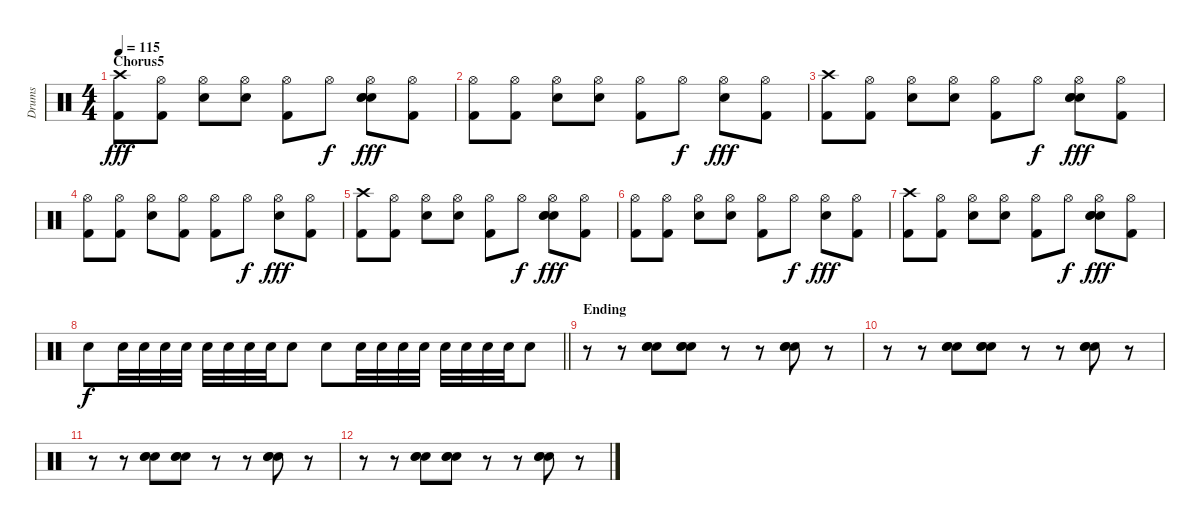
\track ("Drums" "Drums") {instrument percussion}
\staff {score}
\articulation defaults
\ts (4 4)
\section ("" "Chorus5")
\tempo 115
\clef neutral
\ks c
("Crash high (hit)" "Kick (hit) 2").8{dy fff} ("Hi-Hat (open)" "Kick (hit) 2").8 ("Hi-Hat (open)" "Electric Snare (hit)").8 ("Hi-Hat (open)" "Electric Snare (hit)").8 ("Hi-Hat (open)" "Kick (hit) 2").8 "Hi-Hat (open)".8{dy f} ("Hi-Hat (open)" "Electric Snare (hit)" "Hand Clap (hit)" "Hand Clap (hit)").8{dy fff} ("Hi-Hat (open)" "Kick (hit) 2").8 |
("Hi-Hat (open)" "Kick (hit) 2").8 ("Hi-Hat (open)" "Kick (hit) 2").8 ("Hi-Hat (open)" "Electric Snare (hit)").8 ("Hi-Hat (open)" "Electric Snare (hit)").8 ("Hi-Hat (open)" "Kick (hit) 2").8 "Hi-Hat (open)".8{dy f} ("Hi-Hat (open)" "Electric Snare (hit)").8{dy fff} ("Hi-Hat (open)" "Kick (hit) 2").8 |
("Crash high (hit)" "Kick (hit) 2").8 ("Hi-Hat (open)" "Kick (hit) 2").8 ("Hi-Hat (open)" "Electric Snare (hit)").8 ("Hi-Hat (open)" "Electric Snare (hit)").8 ("Hi-Hat (open)" "Kick (hit) 2").8 "Hi-Hat (open)".8{dy f} ("Hi-Hat (open)" "Electric Snare (hit)" "Hand Clap (hit)" "Hand Clap (hit)").8{dy fff} ("Hi-Hat (open)" "Kick (hit) 2").8 |
("Hi-Hat (open)" "Kick (hit) 2").8 ("Hi-Hat (open)" "Kick (hit) 2").8 ("Hi-Hat (open)" "Electric Snare (hit)").8 ("Hi-Hat (open)" "Kick (hit) 2").8 ("Hi-Hat (open)" "Kick (hit) 2").8 "Hi-Hat (open)".8{dy f} ("Hi-Hat (open)" "Electric Snare (hit)").8{dy fff} ("Hi-Hat (open)" "Kick (hit) 2").8 |
("Crash high (hit)" "Kick (hit) 2").8 ("Hi-Hat (open)" "Kick (hit) 2").8 ("Hi-Hat (open)" "Electric Snare (hit)").8 ("Hi-Hat (open)" "Electric Snare (hit)").8 ("Hi-Hat (open)" "Kick (hit) 2").8 "Hi-Hat (open)".8{dy f} ("Hi-Hat (open)" "Electric Snare (hit)" "Hand Clap (hit)" "Hand Clap (hit)").8{dy fff} ("Hi-Hat (open)" "Kick (hit) 2").8 |
("Hi-Hat (open)" "Kick (hit) 2").8 ("Hi-Hat (open)" "Kick (hit) 2").8 ("Hi-Hat (open)" "Electric Snare (hit)").8 ("Hi-Hat (open)" "Electric Snare (hit)").8 ("Hi-Hat (open)" "Kick (hit) 2").8 "Hi-Hat (open)".8{dy f} ("Hi-Hat (open)" "Electric Snare (hit)").8{dy fff} ("Hi-Hat (open)" "Kick (hit) 2").8 |
("Crash high (hit)" "Kick (hit) 2").8 ("Hi-Hat (open)" "Kick (hit) 2").8 ("Hi-Hat (open)" "Electric Snare (hit)").8 ("Hi-Hat (open)" "Electric Snare (hit)").8 ("Hi-Hat (open)" "Kick (hit) 2").8 "Hi-Hat (open)".8{dy f} ("Hi-Hat (open)" "Electric Snare (hit)" "Hand Clap (hit)" "Hand Clap (hit)").8{dy fff} ("Hi-Hat (open)" "Kick (hit) 2").8 |
\barLineRight lightlight "Electric Snare (hit)".8{dy f} "Electric Snare (hit)".32 "Electric Snare (hit)".32 "Electric Snare (hit)".32 "Electric Snare (hit)".32 "Electric Snare (hit)".32 "Electric Snare (hit)".32 "Electric Snare (hit)".32 "Electric Snare (hit)".32 "Electric Snare (hit)".8 "Electric Snare (hit)".8 "Electric Snare (hit)".32 "Electric Snare (hit)".32 "Electric Snare (hit)".32 "Electric Snare (hit)".32 "Electric Snare (hit)".32 "Electric Snare (hit)".32 "Electric Snare (hit)".32 "Electric Snare (hit)".32 "Electric Snare (hit)".8
|
\section ("" "Ending")
r.8 r.8 ("Hand Clap (hit)" "Hand Clap (hit)" "Hand Clap (hit)").8 ("Hand Clap (hit)" "Hand Clap (hit)" "Hand Clap (hit)").8 r.8 r.8 ("Hand Clap (hit)" "Hand Clap (hit)" "Hand Clap (hit)").8 r.8 |
r.8 r.8 ("Hand Clap (hit)" "Hand Clap (hit)" "Hand Clap (hit)").8 ("Hand Clap (hit)" "Hand Clap (hit)" "Hand Clap (hit)").8 r.8 r.8 ("Hand Clap (hit)" "Hand Clap (hit)" "Hand Clap (hit)").8 r.8 |
r.8 r.8 ("Hand Clap (hit)" "Hand Clap (hit)" "Hand Clap (hit)").8 ("Hand Clap (hit)" "Hand Clap (hit)" "Hand Clap (hit)").8 r.8 r.8 ("Hand Clap (hit)" "Hand Clap (hit)" "Hand Clap (hit)").8 r.8 |
r.8 r.8 ("Hand Clap (hit)" "Hand Clap (hit)" "Hand Clap (hit)").8 ("Hand Clap (hit)" "Hand Clap (hit)" "Hand Clap (hit)").8 r.8 r.8 ("Hand Clap (hit)" "Hand Clap (hit)" "Hand Clap (hit)").8 r.8
